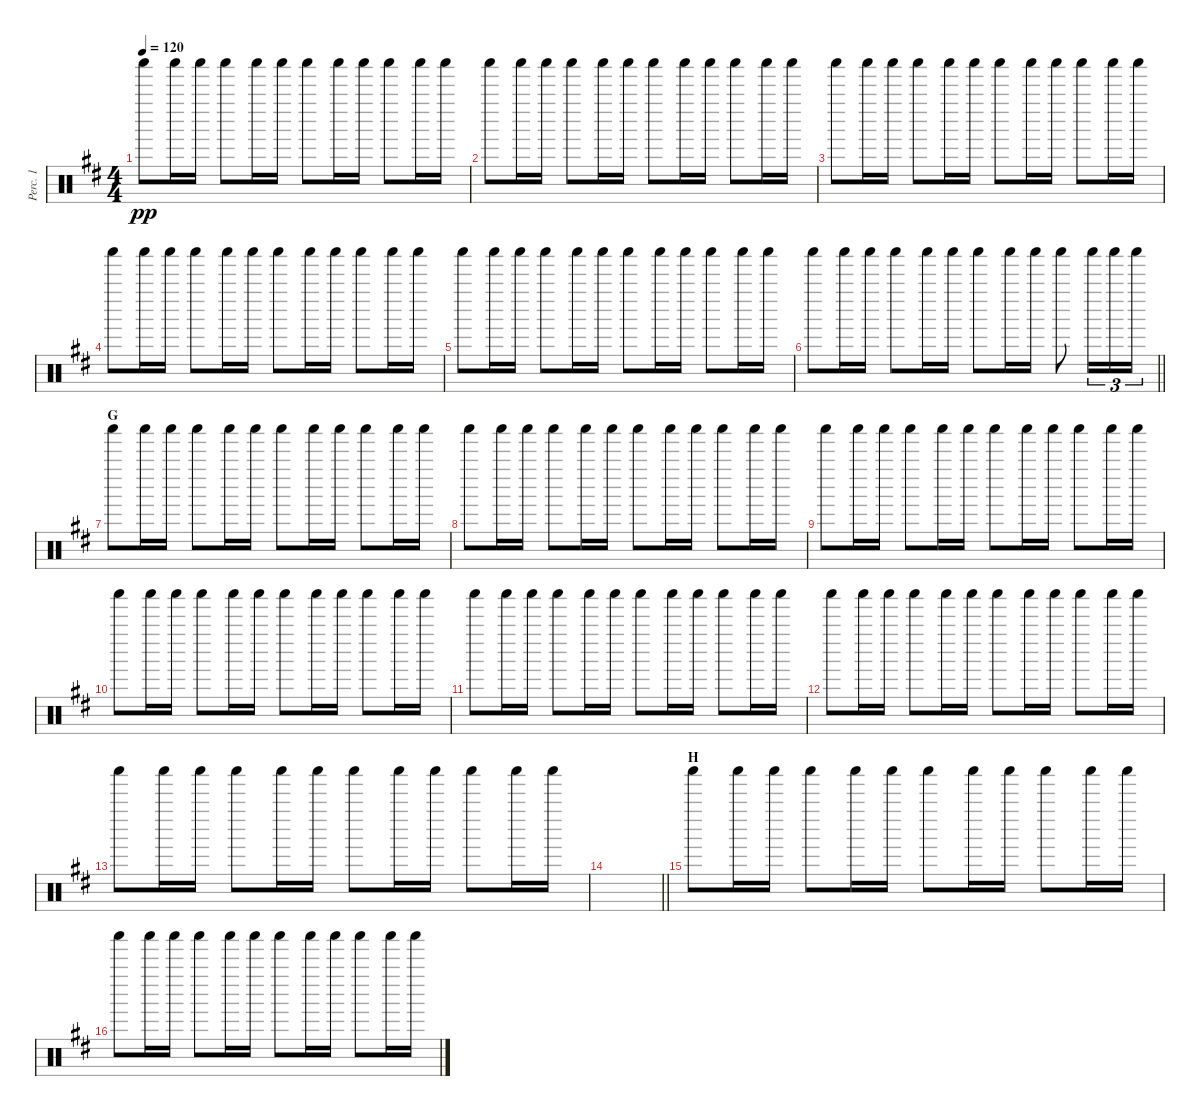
\track ("Perc. 1" "Perc. 1") {instrument percussion}
\staff {score}
\articulation defaults
\ts (4 4)
\tempo 120
\clef neutral
\ks d "Shaker (hit)".8{dy pp} "Shaker (hit)".16 "Shaker (hit)".16 "Shaker (hit)".8 "Shaker (hit)".16 "Shaker (hit)".16 "Shaker (hit)".8 "Shaker (hit)".16 "Shaker (hit)".16 "Shaker (hit)".8 "Shaker (hit)".16 "Shaker (hit)".16
|
"Shaker (hit)".8 "Shaker (hit)".16 "Shaker (hit)".16 "Shaker (hit)".8 "Shaker (hit)".16 "Shaker (hit)".16 "Shaker (hit)".8 "Shaker (hit)".16 "Shaker (hit)".16 "Shaker (hit)".8 "Shaker (hit)".16 "Shaker (hit)".16 |
"Shaker (hit)".8 "Shaker (hit)".16 "Shaker (hit)".16 "Shaker (hit)".8 "Shaker (hit)".16 "Shaker (hit)".16 "Shaker (hit)".8 "Shaker (hit)".16 "Shaker (hit)".16 "Shaker (hit)".8 "Shaker (hit)".16 "Shaker (hit)".16 |
"Shaker (hit)".8 "Shaker (hit)".16 "Shaker (hit)".16 "Shaker (hit)".8 "Shaker (hit)".16 "Shaker (hit)".16 "Shaker (hit)".8 "Shaker (hit)".16 "Shaker (hit)".16 "Shaker (hit)".8 "Shaker (hit)".16 "Shaker (hit)".16 |
"Shaker (hit)".8 "Shaker (hit)".16 "Shaker (hit)".16 "Shaker (hit)".8 "Shaker (hit)".16 "Shaker (hit)".16 "Shaker (hit)".8 "Shaker (hit)".16 "Shaker (hit)".16 "Shaker (hit)".8 "Shaker (hit)".16 "Shaker (hit)".16 |
\barLineRight lightlight "Shaker (hit)".8 "Shaker (hit)".16 "Shaker (hit)".16 "Shaker (hit)".8 "Shaker (hit)".16 "Shaker (hit)".16 "Shaker (hit)".8 "Shaker (hit)".16 "Shaker (hit)".16 "Shaker (hit)".8 "Shaker (hit)".16{tu (3 2)} "Shaker (hit)".16{tu (3 2)} "Shaker (hit)".16{tu (3 2)}
|
\section ("" "G")
"Shaker (hit)".8 "Shaker (hit)".16 "Shaker (hit)".16 "Shaker (hit)".8 "Shaker (hit)".16 "Shaker (hit)".16 "Shaker (hit)".8 "Shaker (hit)".16 "Shaker (hit)".16 "Shaker (hit)".8 "Shaker (hit)".16 "Shaker (hit)".16 |
"Shaker (hit)".8 "Shaker (hit)".16 "Shaker (hit)".16 "Shaker (hit)".8 "Shaker (hit)".16 "Shaker (hit)".16 "Shaker (hit)".8 "Shaker (hit)".16 "Shaker (hit)".16 "Shaker (hit)".8 "Shaker (hit)".16 "Shaker (hit)".16 |
"Shaker (hit)".8 "Shaker (hit)".16 "Shaker (hit)".16 "Shaker (hit)".8 "Shaker (hit)".16 "Shaker (hit)".16 "Shaker (hit)".8 "Shaker (hit)".16 "Shaker (hit)".16 "Shaker (hit)".8 "Shaker (hit)".16 "Shaker (hit)".16 |
"Shaker (hit)".8 "Shaker (hit)".16 "Shaker (hit)".16 "Shaker (hit)".8 "Shaker (hit)".16 "Shaker (hit)".16 "Shaker (hit)".8 "Shaker (hit)".16 "Shaker (hit)".16 "Shaker (hit)".8 "Shaker (hit)".16 "Shaker (hit)".16 |
"Shaker (hit)".8 "Shaker (hit)".16 "Shaker (hit)".16 "Shaker (hit)".8 "Shaker (hit)".16 "Shaker (hit)".16 "Shaker (hit)".8 "Shaker (hit)".16 "Shaker (hit)".16 "Shaker (hit)".8 "Shaker (hit)".16 "Shaker (hit)".16 |
"Shaker (hit)".8 "Shaker (hit)".16 "Shaker (hit)".16 "Shaker (hit)".8 "Shaker (hit)".16 "Shaker (hit)".16 "Shaker (hit)".8 "Shaker (hit)".16 "Shaker (hit)".16 "Shaker (hit)".8 "Shaker (hit)".16 "Shaker (hit)".16 |
"Shaker (hit)".8 "Shaker (hit)".16 "Shaker (hit)".16 "Shaker (hit)".8 "Shaker (hit)".16 "Shaker (hit)".16 "Shaker (hit)".8 "Shaker (hit)".16 "Shaker (hit)".16 "Shaker (hit)".8 "Shaker (hit)".16 "Shaker (hit)".16 |
\barLineRight lightlight
|
\section ("" "H")
"Shaker (hit)".8 "Shaker (hit)".16 "Shaker (hit)".16 "Shaker (hit)".8 "Shaker (hit)".16 "Shaker (hit)".16 "Shaker (hit)".8 "Shaker (hit)".16 "Shaker (hit)".16 "Shaker (hit)".8 "Shaker (hit)".16 "Shaker (hit)".16 |
"Shaker (hit)".8 "Shaker (hit)".16 "Shaker (hit)".16 "Shaker (hit)".8 "Shaker (hit)".16 "Shaker (hit)".16 "Shaker (hit)".8 "Shaker (hit)".16 "Shaker (hit)".16 "Shaker (hit)".8 "Shaker (hit)".16 "Shaker (hit)".16
